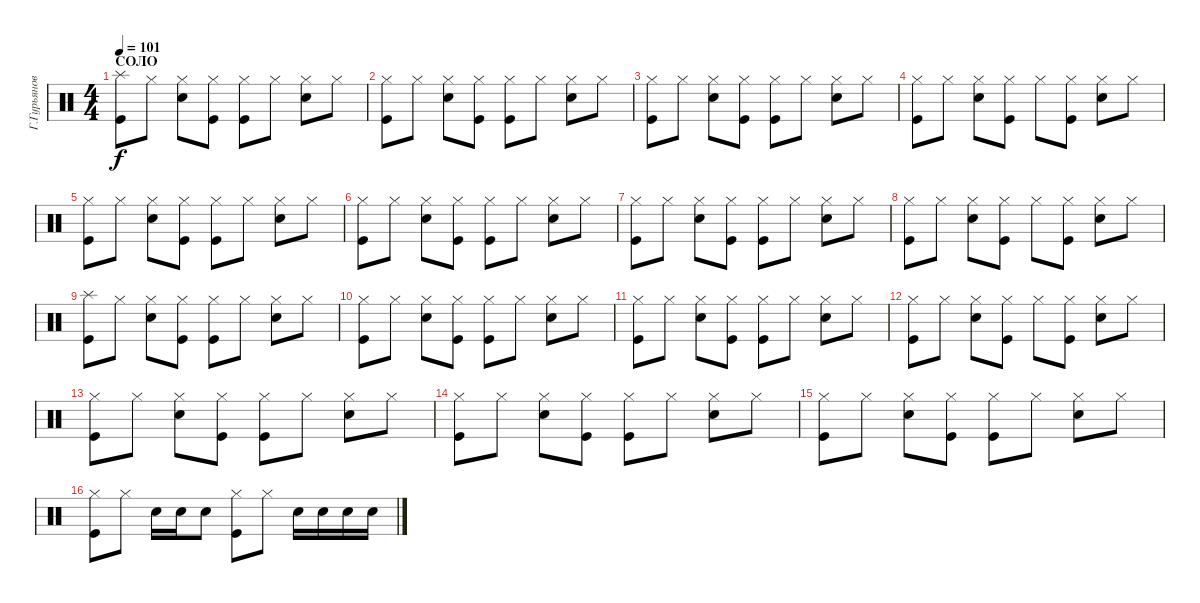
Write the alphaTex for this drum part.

\track ("Г.Гурьянов" "Г.Гурьянов") {instrument percussion}
\staff {score}
\articulation defaults
\ts (4 4)
\section ("" "СОЛО")
\tempo 101
\clef neutral
\ks c
("Splash (hit)" "Kick (hit)").8{dy f} "Hi-Hat (closed)".8 ("Hi-Hat (closed)" "Snare (hit) 2").8 ("Hi-Hat (closed)" "Kick (hit)").8 ("Hi-Hat (closed)" "Kick (hit)").8 "Hi-Hat (closed)".8 ("Hi-Hat (closed)" "Snare (hit) 2").8 "Hi-Hat (closed)".8 |
("Hi-Hat (closed)" "Kick (hit)").8 "Hi-Hat (closed)".8 ("Hi-Hat (closed)" "Snare (hit) 2").8 ("Hi-Hat (closed)" "Kick (hit)").8 ("Hi-Hat (closed)" "Kick (hit)").8 "Hi-Hat (closed)".8 ("Hi-Hat (closed)" "Snare (hit) 2").8 "Hi-Hat (closed)".8 |
("Hi-Hat (closed)" "Kick (hit)").8 "Hi-Hat (closed)".8 ("Hi-Hat (closed)" "Snare (hit) 2").8 ("Hi-Hat (closed)" "Kick (hit)").8 ("Hi-Hat (closed)" "Kick (hit)").8 "Hi-Hat (closed)".8 ("Hi-Hat (closed)" "Snare (hit) 2").8 "Hi-Hat (closed)".8 |
("Hi-Hat (closed)" "Kick (hit)").8 "Hi-Hat (closed)".8 ("Hi-Hat (closed)" "Snare (hit) 2").8 ("Hi-Hat (closed)" "Kick (hit)").8 "Hi-Hat (closed)".8 ("Hi-Hat (closed)" "Kick (hit)").8 ("Hi-Hat (closed)" "Snare (hit) 2").8 "Hi-Hat (closed)".8 |
("Hi-Hat (closed)" "Kick (hit)").8 "Hi-Hat (closed)".8 ("Hi-Hat (closed)" "Snare (hit) 2").8 ("Hi-Hat (closed)" "Kick (hit)").8 ("Hi-Hat (closed)" "Kick (hit)").8 "Hi-Hat (closed)".8 ("Hi-Hat (closed)" "Snare (hit) 2").8 "Hi-Hat (closed)".8 |
("Hi-Hat (closed)" "Kick (hit)").8 "Hi-Hat (closed)".8 ("Hi-Hat (closed)" "Snare (hit) 2").8 ("Hi-Hat (closed)" "Kick (hit)").8 ("Hi-Hat (closed)" "Kick (hit)").8 "Hi-Hat (closed)".8 ("Hi-Hat (closed)" "Snare (hit) 2").8 "Hi-Hat (closed)".8 |
("Hi-Hat (closed)" "Kick (hit)").8 "Hi-Hat (closed)".8 ("Hi-Hat (closed)" "Snare (hit) 2").8 ("Hi-Hat (closed)" "Kick (hit)").8 ("Hi-Hat (closed)" "Kick (hit)").8 "Hi-Hat (closed)".8 ("Hi-Hat (closed)" "Snare (hit) 2").8 "Hi-Hat (closed)".8 |
("Hi-Hat (closed)" "Kick (hit)").8 "Hi-Hat (closed)".8 ("Hi-Hat (closed)" "Snare (hit) 2").8 ("Hi-Hat (closed)" "Kick (hit)").8 "Hi-Hat (closed)".8 ("Hi-Hat (closed)" "Kick (hit)").8 ("Hi-Hat (closed)" "Snare (hit) 2").8 "Hi-Hat (closed)".8 |
("Splash (hit)" "Kick (hit)").8 "Hi-Hat (closed)".8 ("Hi-Hat (closed)" "Snare (hit) 2").8 ("Hi-Hat (closed)" "Kick (hit)").8 ("Hi-Hat (closed)" "Kick (hit)").8 "Hi-Hat (closed)".8 ("Hi-Hat (closed)" "Snare (hit) 2").8 "Hi-Hat (closed)".8 |
("Hi-Hat (closed)" "Kick (hit)").8 "Hi-Hat (closed)".8 ("Hi-Hat (closed)" "Snare (hit) 2").8 ("Hi-Hat (closed)" "Kick (hit)").8 ("Hi-Hat (closed)" "Kick (hit)").8 "Hi-Hat (closed)".8 ("Hi-Hat (closed)" "Snare (hit) 2").8 "Hi-Hat (closed)".8 |
("Hi-Hat (closed)" "Kick (hit)").8 "Hi-Hat (closed)".8 ("Hi-Hat (closed)" "Snare (hit) 2").8 ("Hi-Hat (closed)" "Kick (hit)").8 ("Hi-Hat (closed)" "Kick (hit)").8 "Hi-Hat (closed)".8 ("Hi-Hat (closed)" "Snare (hit) 2").8 "Hi-Hat (closed)".8 |
("Hi-Hat (closed)" "Kick (hit)").8 "Hi-Hat (closed)".8 ("Hi-Hat (closed)" "Snare (hit) 2").8 ("Hi-Hat (closed)" "Kick (hit)").8 "Hi-Hat (closed)".8 ("Hi-Hat (closed)" "Kick (hit)").8 ("Hi-Hat (closed)" "Snare (hit) 2").8 "Hi-Hat (closed)".8 |
("Hi-Hat (closed)" "Kick (hit)").8 "Hi-Hat (closed)".8 ("Hi-Hat (closed)" "Snare (hit) 2").8 ("Hi-Hat (closed)" "Kick (hit)").8 ("Hi-Hat (closed)" "Kick (hit)").8 "Hi-Hat (closed)".8 ("Hi-Hat (closed)" "Snare (hit) 2").8 "Hi-Hat (closed)".8 |
("Hi-Hat (closed)" "Kick (hit)").8 "Hi-Hat (closed)".8 ("Hi-Hat (closed)" "Snare (hit) 2").8 ("Hi-Hat (closed)" "Kick (hit)").8 ("Hi-Hat (closed)" "Kick (hit)").8 "Hi-Hat (closed)".8 ("Hi-Hat (closed)" "Snare (hit) 2").8 "Hi-Hat (closed)".8 |
("Hi-Hat (closed)" "Kick (hit)").8 "Hi-Hat (closed)".8 ("Hi-Hat (closed)" "Snare (hit) 2").8 ("Hi-Hat (closed)" "Kick (hit)").8 ("Hi-Hat (closed)" "Kick (hit)").8 "Hi-Hat (closed)".8 ("Hi-Hat (closed)" "Snare (hit) 2").8 "Hi-Hat (closed)".8 |
("Hi-Hat (closed)" "Kick (hit)").8 "Hi-Hat (closed)".8 "Snare (hit) 2".16 "Snare (hit) 2".16 "Snare (hit) 2".8 ("Hi-Hat (closed)" "Kick (hit)").8 "Hi-Hat (closed)".8 "Snare (hit) 2".16 "Snare (hit) 2".16 "Snare (hit) 2".16 "Snare (hit) 2".16
